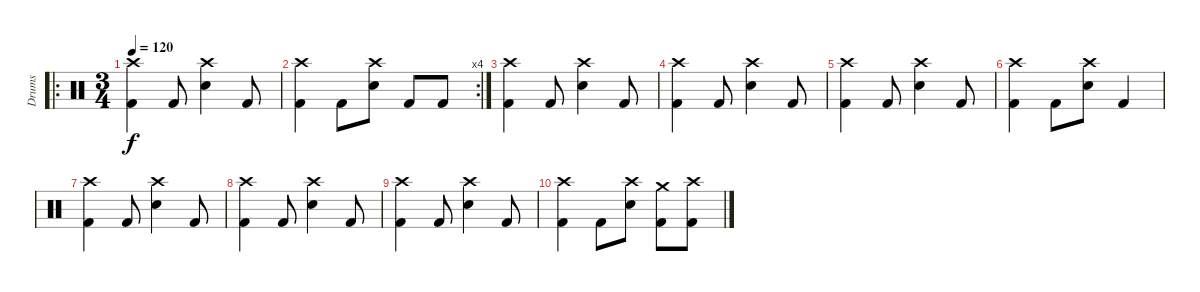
\track ("Drums" "Drums") {instrument percussion}
\staff {score}
\articulation defaults
\ro
\ts (3 4)
\tempo 120
\clef neutral
\ks c
("Crash high (hit)" "Kick (hit) 2").4{dy f} "Kick (hit) 2".8 ("Crash high (hit)" "Snare (hit) 2").4 "Kick (hit) 2".8 |
\rc 4
("Crash high (hit)" "Kick (hit) 2").4 "Kick (hit) 2".8 ("Crash high (hit)" "Snare (hit) 2").8 "Kick (hit) 2".8 "Kick (hit) 2".8 |
("Crash high (hit)" "Kick (hit) 2").4 "Kick (hit) 2".8 ("Crash high (hit)" "Snare (hit) 2").4 "Kick (hit) 2".8 |
("Crash high (hit)" "Kick (hit) 2").4 "Kick (hit) 2".8 ("Crash high (hit)" "Snare (hit) 2").4 "Kick (hit) 2".8 |
("Crash high (hit)" "Kick (hit) 2").4 "Kick (hit) 2".8 ("Crash high (hit)" "Snare (hit) 2").4 "Kick (hit) 2".8 |
("Crash high (hit)" "Kick (hit) 2").4 "Kick (hit) 2".8 ("Crash high (hit)" "Snare (hit) 2").8 "Kick (hit) 2".4 |
("Crash high (hit)" "Kick (hit) 2").4 "Kick (hit) 2".8 ("Crash high (hit)" "Snare (hit) 2").4 "Kick (hit) 2".8 |
("Crash high (hit)" "Kick (hit) 2").4 "Kick (hit) 2".8 ("Crash high (hit)" "Snare (hit) 2").4 "Kick (hit) 2".8 |
("Crash high (hit)" "Kick (hit) 2").4 "Kick (hit) 2".8 ("Crash high (hit)" "Snare (hit) 2").4 "Kick (hit) 2".8 |
("Crash high (hit)" "Kick (hit) 2").4 "Kick (hit) 2".8 ("Crash high (hit)" "Snare (hit) 2").8 ("Crash medium (hit)" "Kick (hit) 2").8 ("Crash high (hit)" "Kick (hit) 2").8
